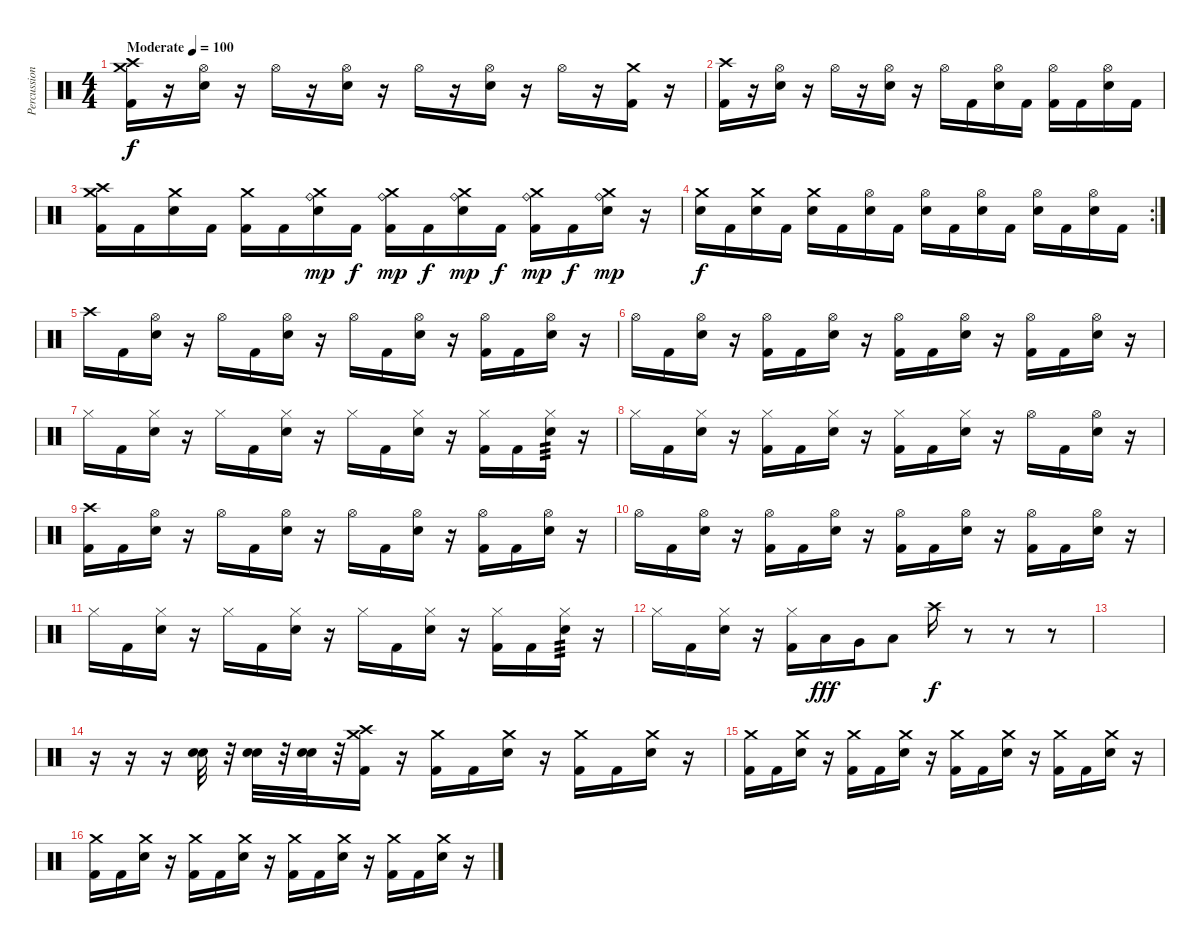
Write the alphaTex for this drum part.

\track ("Percussion" "Percussion") {instrument percussion}
\staff {score}
\articulation defaults
\ts (4 4)
\tempo (100 "Moderate")
\clef neutral
\ks c
("Crash high (hit)" "Crash medium (hit)" "Kick (hit) 2").16{dy f} r.16 ("Hi-Hat (open)" "Electric Snare (hit)").16 r.16 "Hi-Hat (open)".16 r.16 ("Hi-Hat (open)" "Electric Snare (hit)").16 r.16 "Hi-Hat (open)".16 r.16 ("Hi-Hat (open)" "Electric Snare (hit)").16 r.16 "Hi-Hat (open)".16 r.16 ("Crash medium (hit)" "Kick (hit) 2").16 r.16 |
("Crash high (hit)" "Kick (hit) 2").16 r.16 ("Hi-Hat (open)" "Electric Snare (hit)").16 r.16 "Hi-Hat (open)".16 r.16 ("Hi-Hat (open)" "Electric Snare (hit)").16 r.16 "Hi-Hat (open)".16 "Kick (hit) 2".16 ("Hi-Hat (open)" "Electric Snare (hit)").16 "Kick (hit) 2".16 ("Hi-Hat (open)" "Kick (hit) 2").16 "Kick (hit) 2".16 ("Hi-Hat (open)" "Electric Snare (hit)").16 "Kick (hit) 2".16 |
("Crash high (hit)" "Crash medium (hit)" "Kick (hit) 2").16 "Kick (hit) 2".16 ("Crash medium (hit)" "Electric Snare (hit)").16 "Kick (hit) 2".16 ("Crash medium (hit)" "Kick (hit) 2").16 "Kick (hit) 2".16 ("Crash medium (hit)" "Ride (bell)" "Electric Snare (hit)").16{dy mp} "Kick (hit) 2".16{dy f} ("Crash medium (hit)" "Ride (bell)" "Kick (hit) 2").16{dy mp} "Kick (hit) 2".16{dy f} ("Crash medium (hit)" "Ride (bell)" "Electric Snare (hit)").16{dy mp} "Kick (hit) 2".16{dy f} ("Crash medium (hit)" "Ride (bell)" "Kick (hit) 2").16{dy mp} "Kick (hit) 2".16{dy f} ("Crash medium (hit)" "Ride (bell)" "Electric Snare (hit)").16{dy mp} r.16 |
\rc 2
("Crash medium (hit)" "Electric Snare (hit)").16{dy f} "Kick (hit) 2".16 ("Crash medium (hit)" "Electric Snare (hit)").16 "Kick (hit) 2".16 ("Crash medium (hit)" "Electric Snare (hit)").16 "Kick (hit) 2".16 ("Hi-Hat (open)" "Electric Snare (hit)").16 "Kick (hit) 2".16 ("Hi-Hat (open)" "Electric Snare (hit)").16 "Kick (hit) 2".16 ("Hi-Hat (open)" "Electric Snare (hit)").16 "Kick (hit) 2".16 ("Hi-Hat (open)" "Electric Snare (hit)").16 "Kick (hit) 2".16 ("Hi-Hat (open)" "Electric Snare (hit)").16 "Kick (hit) 2".16 |
"Crash high (hit)".16 "Kick (hit) 2".16 ("Hi-Hat (open)" "Electric Snare (hit)").16 r.16 "Hi-Hat (open)".16 "Kick (hit) 2".16 ("Hi-Hat (open)" "Electric Snare (hit)").16 r.16 "Hi-Hat (open)".16 "Kick (hit) 2".16 ("Hi-Hat (open)" "Electric Snare (hit)").16 r.16 ("Hi-Hat (open)" "Kick (hit) 2").16 "Kick (hit) 2".16 ("Hi-Hat (open)" "Electric Snare (hit)").16 r.16 |
"Hi-Hat (open)".16 "Kick (hit) 2".16 ("Hi-Hat (open)" "Electric Snare (hit)").16 r.16 ("Hi-Hat (open)" "Kick (hit) 2").16 "Kick (hit) 2".16 ("Hi-Hat (open)" "Electric Snare (hit)").16 r.16 ("Hi-Hat (open)" "Kick (hit) 2").16 "Kick (hit) 2".16 ("Hi-Hat (open)" "Electric Snare (hit)").16 r.16 ("Hi-Hat (open)" "Kick (hit) 2").16 "Kick (hit) 2".16 ("Hi-Hat (open)" "Electric Snare (hit)").16 r.16 |
"Hi-Hat (closed)".16 "Kick (hit) 2".16 ("Hi-Hat (closed)" "Electric Snare (hit)").16 r.16 "Hi-Hat (closed)".16 "Kick (hit) 2".16 ("Hi-Hat (closed)" "Electric Snare (hit)").16 r.16 "Hi-Hat (closed)".16 "Kick (hit) 2".16 ("Hi-Hat (closed)" "Electric Snare (hit)").16 r.16 ("Hi-Hat (closed)" "Kick (hit) 2").16 "Kick (hit) 2".16 ("Hi-Hat (closed)" "Electric Snare (hit)").16{tp 3} r.16 |
"Hi-Hat (closed)".16 "Kick (hit) 2".16 ("Hi-Hat (closed)" "Electric Snare (hit)").16 r.16 ("Hi-Hat (closed)" "Kick (hit) 2").16 "Kick (hit) 2".16 ("Hi-Hat (closed)" "Electric Snare (hit)").16 r.16 ("Hi-Hat (closed)" "Kick (hit) 2").16 "Kick (hit) 2".16 ("Hi-Hat (closed)" "Electric Snare (hit)").16 r.16 "Hi-Hat (open)".16 "Kick (hit) 2".16 ("Hi-Hat (open)" "Electric Snare (hit)").16 r.16 |
("Crash high (hit)" "Kick (hit) 2").16 "Kick (hit) 2".16 ("Hi-Hat (open)" "Electric Snare (hit)").16 r.16 "Hi-Hat (open)".16 "Kick (hit) 2".16 ("Hi-Hat (open)" "Electric Snare (hit)").16 r.16 "Hi-Hat (open)".16 "Kick (hit) 2".16 ("Hi-Hat (open)" "Electric Snare (hit)").16 r.16 ("Hi-Hat (open)" "Kick (hit) 2").16 "Kick (hit) 2".16 ("Hi-Hat (open)" "Electric Snare (hit)").16 r.16 |
"Hi-Hat (open)".16 "Kick (hit) 2".16 ("Hi-Hat (open)" "Electric Snare (hit)").16 r.16 ("Hi-Hat (open)" "Kick (hit) 2").16 "Kick (hit) 2".16 ("Hi-Hat (open)" "Electric Snare (hit)").16 r.16 ("Hi-Hat (open)" "Kick (hit) 2").16 "Kick (hit) 2".16 ("Hi-Hat (open)" "Electric Snare (hit)").16 r.16 ("Hi-Hat (open)" "Kick (hit) 2").16 "Kick (hit) 2".16 ("Hi-Hat (open)" "Electric Snare (hit)").16 r.16 |
"Hi-Hat (closed)".16 "Kick (hit) 2".16 ("Hi-Hat (closed)" "Electric Snare (hit)").16 r.16 "Hi-Hat (closed)".16 "Kick (hit) 2".16 ("Hi-Hat (closed)" "Electric Snare (hit)").16 r.16 "Hi-Hat (closed)".16 "Kick (hit) 2".16 ("Hi-Hat (closed)" "Electric Snare (hit)").16 r.16 ("Hi-Hat (closed)" "Kick (hit) 2").16 "Kick (hit) 2".16 ("Hi-Hat (closed)" "Electric Snare (hit)").16{tp 3} r.16 |
"Hi-Hat (closed)".16 "Kick (hit) 2".16 ("Hi-Hat (closed)" "Electric Snare (hit)").16 r.16 ("Hi-Hat (closed)" "Kick (hit) 2").16 "Low Tom (hit)".16{dy fff} "Very Low Tom (hit)".16 "Low Floor Tom (hit)".8 "Crash high (hit)".16{dy f} r.8 r.8 r.8 |
|
r.16 r.16 r.16 ("Electric Snare (hit)" "Electric Snare (hit)").32 r.32 ("Electric Snare (hit)" "Electric Snare (hit)").32 r.32 ("Electric Snare (hit)" "Electric Snare (hit)").32 r.32 ("Crash high (hit)" "Crash medium (hit)" "Kick (hit) 2").16 r.16 ("Crash medium (hit)" "Kick (hit) 2").16 "Kick (hit) 2".16 ("Crash medium (hit)" "Electric Snare (hit)").16 r.16 ("Crash medium (hit)" "Kick (hit) 2").16 "Kick (hit) 2".16 ("Crash medium (hit)" "Electric Snare (hit)").16 r.16 |
("Crash medium (hit)" "Kick (hit) 2").16 "Kick (hit) 2".16 ("Crash medium (hit)" "Electric Snare (hit)").16 r.16 ("Crash medium (hit)" "Kick (hit) 2").16 "Kick (hit) 2".16 ("Crash medium (hit)" "Electric Snare (hit)").16 r.16 ("Crash medium (hit)" "Kick (hit) 2").16 "Kick (hit) 2".16 ("Crash medium (hit)" "Electric Snare (hit)").16 r.16 ("Crash medium (hit)" "Kick (hit) 2").16 "Kick (hit) 2".16 ("Crash medium (hit)" "Electric Snare (hit)").16 r.16 |
("Crash medium (hit)" "Kick (hit) 2").16 "Kick (hit) 2".16 ("Crash medium (hit)" "Electric Snare (hit)").16 r.16 ("Crash medium (hit)" "Kick (hit) 2").16 "Kick (hit) 2".16 ("Crash medium (hit)" "Electric Snare (hit)").16 r.16 ("Crash medium (hit)" "Kick (hit) 2").16 "Kick (hit) 2".16 ("Crash medium (hit)" "Electric Snare (hit)").16 r.16 ("Crash medium (hit)" "Kick (hit) 2").16 "Kick (hit) 2".16 ("Crash medium (hit)" "Electric Snare (hit)").16 r.16
